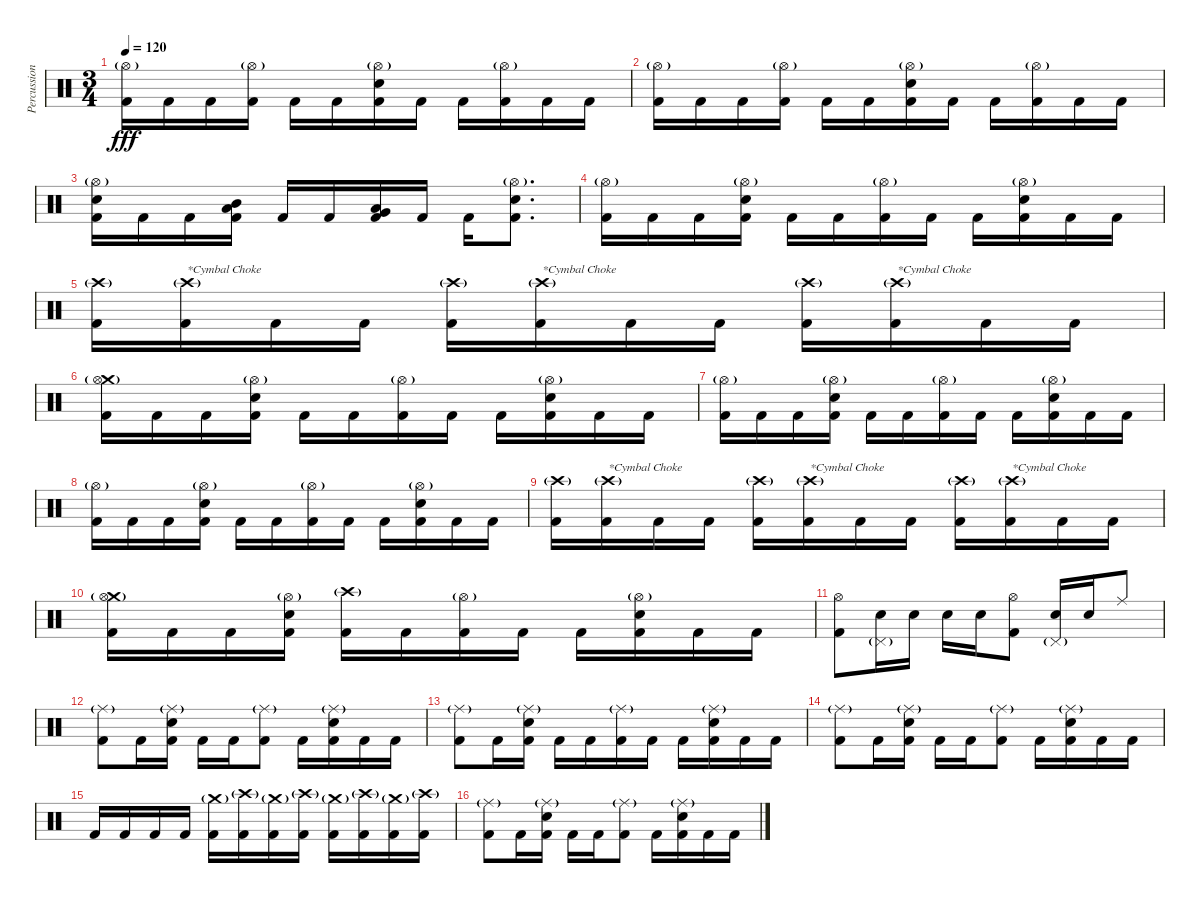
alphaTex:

\track ("Percussion" "Percussion") {instrument percussion}
\staff {score}
\articulation defaults
\ts (3 4)
\tempo 120
\clef neutral
\ks c
("Hi-Hat (open)"{g} "Kick (hit) 2").16{dy fff} "Kick (hit) 2".16 "Kick (hit) 2".16 ("Hi-Hat (open)"{g} "Kick (hit) 2").16 "Kick (hit) 2".16 "Kick (hit) 2".16 ("Hi-Hat (open)"{g} "Electric Snare (hit)" "Kick (hit) 2").16 "Kick (hit) 2".16 "Kick (hit) 2".16 ("Hi-Hat (open)"{g} "Kick (hit) 2").16 "Kick (hit) 2".16 "Kick (hit) 2".16 |
("Hi-Hat (open)"{g} "Kick (hit) 2").16 "Kick (hit) 2".16 "Kick (hit) 2".16 ("Hi-Hat (open)"{g} "Kick (hit) 2").16 "Kick (hit) 2".16 "Kick (hit) 2".16 ("Hi-Hat (open)"{g} "Electric Snare (hit)" "Kick (hit) 2").16 "Kick (hit) 2".16 "Kick (hit) 2".16 ("Hi-Hat (open)"{g} "Kick (hit) 2").16 "Kick (hit) 2".16 "Kick (hit) 2".16 |
("Hi-Hat (open)"{g} "Electric Snare (hit)" "Kick (hit) 2").16 "Kick (hit) 2".16 "Kick (hit) 2".16 ("Mid Tom (hit)" "Low Tom (hit)" "Kick (hit) 2").16 "Kick (hit) 2".16 "Kick (hit) 2".16 ("Low Tom (hit)" "Very Low Tom (hit)" "Kick (hit) 2").16 "Kick (hit) 2".16 "Kick (hit) 2".16 ("Hi-Hat (open)"{g} "Electric Snare (hit)" "Kick (hit) 2").8{d} |
("Hi-Hat (open)"{g} "Kick (hit) 2").16 "Kick (hit) 2".16 "Kick (hit) 2".16 ("Hi-Hat (open)"{g} "Electric Snare (hit)" "Kick (hit) 2").16 "Kick (hit) 2".16 "Kick (hit) 2".16 ("Hi-Hat (open)"{g} "Kick (hit) 2").16 "Kick (hit) 2".16 "Kick (hit) 2".16 ("Hi-Hat (open)"{g} "Electric Snare (hit)" "Kick (hit) 2").16 "Kick (hit) 2".16 "Kick (hit) 2".16 |
("Crash high (hit)"{g} "Kick (hit) 2").16 ("Crash high (hit)"{g} "Kick (hit) 2").16{txt "*Cymbal Choke"} "Kick (hit) 2".16 "Kick (hit) 2".16 ("Crash high (hit)"{g} "Kick (hit) 2").16 ("Crash high (hit)"{g} "Kick (hit) 2").16{txt "*Cymbal Choke"} "Kick (hit) 2".16 "Kick (hit) 2".16 ("Crash high (hit)"{g} "Kick (hit) 2").16 ("Crash high (hit)"{g} "Kick (hit) 2").16{txt "*Cymbal Choke"} "Kick (hit) 2".16 "Kick (hit) 2".16 |
("Crash medium (hit)"{g} "Hi-Hat (open)"{g} "Kick (hit) 2").16 "Kick (hit) 2".16 "Kick (hit) 2".16 ("Hi-Hat (open)"{g} "Electric Snare (hit)" "Kick (hit) 2").16 "Kick (hit) 2".16 "Kick (hit) 2".16 ("Hi-Hat (open)"{g} "Kick (hit) 2").16 "Kick (hit) 2".16 "Kick (hit) 2".16 ("Hi-Hat (open)"{g} "Electric Snare (hit)" "Kick (hit) 2").16 "Kick (hit) 2".16 "Kick (hit) 2".16 |
("Hi-Hat (open)"{g} "Kick (hit) 2").16 "Kick (hit) 2".16 "Kick (hit) 2".16 ("Hi-Hat (open)"{g} "Electric Snare (hit)" "Kick (hit) 2").16 "Kick (hit) 2".16 "Kick (hit) 2".16 ("Hi-Hat (open)"{g} "Kick (hit) 2").16 "Kick (hit) 2".16 "Kick (hit) 2".16 ("Hi-Hat (open)"{g} "Electric Snare (hit)" "Kick (hit) 2").16 "Kick (hit) 2".16 "Kick (hit) 2".16 |
("Hi-Hat (open)"{g} "Kick (hit) 2").16 "Kick (hit) 2".16 "Kick (hit) 2".16 ("Hi-Hat (open)"{g} "Electric Snare (hit)" "Kick (hit) 2").16 "Kick (hit) 2".16 "Kick (hit) 2".16 ("Hi-Hat (open)"{g} "Kick (hit) 2").16 "Kick (hit) 2".16 "Kick (hit) 2".16 ("Hi-Hat (open)"{g} "Electric Snare (hit)" "Kick (hit) 2").16 "Kick (hit) 2".16 "Kick (hit) 2".16 |
("Crash high (hit)"{g} "Kick (hit) 2").16 ("Crash high (hit)"{g} "Kick (hit) 2").16{txt "*Cymbal Choke"} "Kick (hit) 2".16 "Kick (hit) 2".16 ("Crash high (hit)"{g} "Kick (hit) 2").16 ("Crash high (hit)"{g} "Kick (hit) 2").16{txt "*Cymbal Choke"} "Kick (hit) 2".16 "Kick (hit) 2".16 ("Crash high (hit)"{g} "Kick (hit) 2").16 ("Crash high (hit)"{g} "Kick (hit) 2").16{txt "*Cymbal Choke"} "Kick (hit) 2".16 "Kick (hit) 2".16 |
("Crash medium (hit)"{g} "Hi-Hat (open)"{g} "Kick (hit) 2").16 "Kick (hit) 2".16 "Kick (hit) 2".16 ("Hi-Hat (open)"{g} "Electric Snare (hit)" "Kick (hit) 2").16 ("Crash high (hit)"{g} "Kick (hit) 2").16 "Kick (hit) 2".16 ("Hi-Hat (open)"{g} "Kick (hit) 2").16 "Kick (hit) 2".16 "Kick (hit) 2".16 ("Hi-Hat (open)"{g} "Electric Snare (hit)" "Kick (hit) 2").16 "Kick (hit) 2".16 "Kick (hit) 2".16 |
("Hi-Hat (open)" "Kick (hit) 2").8 ("Electric Snare (hit)" "Pedal Hi-Hat (hit)"{g}).16 "Electric Snare (hit)".16 "Electric Snare (hit)".16 "Electric Snare (hit)".16 ("Hi-Hat (open)" "Kick (hit) 2").8 ("Electric Snare (hit)" "Pedal Hi-Hat (hit)"{g}).16 "Electric Snare (hit)".16 "Ride (middle)".8 |
("Ride (middle)"{g} "Kick (hit) 2").8 "Kick (hit) 2".16 ("Ride (middle)"{g} "Electric Snare (hit)" "Kick (hit) 2").16 "Kick (hit) 2".16 "Kick (hit) 2".16 ("Ride (middle)"{g} "Kick (hit) 2").8 "Kick (hit) 2".16 ("Ride (middle)"{g} "Electric Snare (hit)" "Kick (hit) 2").16 "Kick (hit) 2".16 "Kick (hit) 2".16 |
("Ride (middle)"{g} "Kick (hit) 2").8 "Kick (hit) 2".16 ("Ride (middle)"{g} "Electric Snare (hit)" "Kick (hit) 2").16 "Kick (hit) 2".16 "Kick (hit) 2".16 ("Ride (middle)"{g} "Kick (hit) 2").16 "Kick (hit) 2".16 "Kick (hit) 2".16 ("Ride (middle)"{g} "Electric Snare (hit)" "Kick (hit) 2").16 "Kick (hit) 2".16 "Kick (hit) 2".16 |
("Ride (middle)"{g} "Kick (hit) 2").8 "Kick (hit) 2".16 ("Ride (middle)"{g} "Electric Snare (hit)" "Kick (hit) 2").16 "Kick (hit) 2".16 "Kick (hit) 2".16 ("Ride (middle)"{g} "Kick (hit) 2").8 "Kick (hit) 2".16 ("Ride (middle)"{g} "Electric Snare (hit)" "Kick (hit) 2").16 "Kick (hit) 2".16 "Kick (hit) 2".16 |
"Kick (hit) 2".16 "Kick (hit) 2".16 "Kick (hit) 2".16 "Kick (hit) 2".16 ("Crash medium (hit)"{g} "Kick (hit) 2").16 ("Crash high (hit)"{g} "Kick (hit) 2").16 ("Crash medium (hit)"{g} "Kick (hit) 2").16 ("Crash high (hit)"{g} "Kick (hit) 2").16 ("Crash medium (hit)"{g} "Kick (hit) 2").16 ("Crash high (hit)"{g} "Kick (hit) 2").16 ("Crash medium (hit)"{g} "Kick (hit) 2").16 ("Crash high (hit)"{g} "Kick (hit) 2").16 |
("Ride (middle)"{g} "Kick (hit) 2").8 "Kick (hit) 2".16 ("Ride (middle)"{g} "Electric Snare (hit)" "Kick (hit) 2").16 "Kick (hit) 2".16 "Kick (hit) 2".16 ("Ride (middle)"{g} "Kick (hit) 2").8 "Kick (hit) 2".16 ("Ride (middle)"{g} "Electric Snare (hit)" "Kick (hit) 2").16 "Kick (hit) 2".16 "Kick (hit) 2".16
